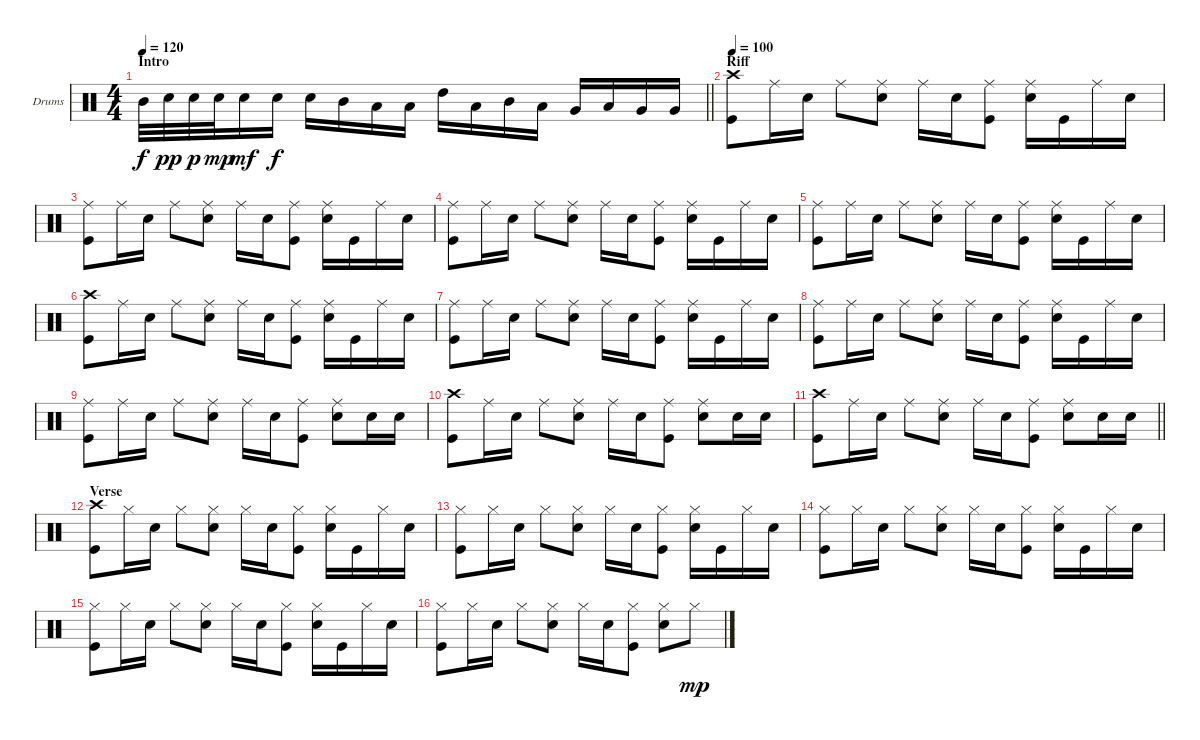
\bracketExtendMode groupsimilarinstruments
\firstSystemTrackNameOrientation horizontal
\otherSystemsTrackNameOrientation horizontal
\track ("Fabrizio" "Drums") {instrument percussion}
\staff {score}
\articulation defaults
\ts (4 4)
\beaming (8 2 2 2 2)
\section ("" "Intro")
\tempo 120
\clef neutral
\barLineRight lightlight
\ks c "Mid Tom (hit)".32{dy f} "Snare (hit) 2".32{dy pp} "Snare (hit) 2".32{dy p} "Snare (hit) 2".32{dy mp} "Snare (hit) 2".16{dy mf} "Snare (hit) 2".16{dy f} "Snare (hit) 2".16 "Mid Tom (hit)".16 "Low Tom (hit)".16 "Low Tom (hit)".16 "High Tom (hit)".16 "Low Tom (hit)".16 "Mid Tom (hit)".16 "Low Tom (hit)".16 "Very Low Tom (hit)".16 "Low Tom (hit)".16 "Very Low Tom (hit)".16 "Very Low Tom (hit)".16
|
\section ("" "Riff")
\tempo 100
("Crash high (hit)" "Kick (hit)").8 "Ride (middle)".16 "Snare (hit) 2".16 "Ride (middle)".8 ("Ride (middle)" "Snare (hit) 2").8 "Ride (middle)".16 "Snare (hit) 2".16 ("Ride (middle)" "Kick (hit)").8 ("Ride (middle)" "Snare (hit) 2").16 "Kick (hit)".16 "Ride (middle)".16 "Snare (hit) 2".16 |
("Ride (middle)" "Kick (hit)").8 "Ride (middle)".16 "Snare (hit) 2".16 "Ride (middle)".8 ("Ride (middle)" "Snare (hit) 2").8 "Ride (middle)".16 "Snare (hit) 2".16 ("Ride (middle)" "Kick (hit)").8 ("Ride (middle)" "Snare (hit) 2").16 "Kick (hit)".16 "Ride (middle)".16 "Snare (hit) 2".16 |
("Ride (middle)" "Kick (hit)").8 "Ride (middle)".16 "Snare (hit) 2".16 "Ride (middle)".8 ("Ride (middle)" "Snare (hit) 2").8 "Ride (middle)".16 "Snare (hit) 2".16 ("Ride (middle)" "Kick (hit)").8 ("Ride (middle)" "Snare (hit) 2").16 "Kick (hit)".16 "Ride (middle)".16 "Snare (hit) 2".16 |
("Ride (middle)" "Kick (hit)").8 "Ride (middle)".16 "Snare (hit) 2".16 "Ride (middle)".8 ("Ride (middle)" "Snare (hit) 2").8 "Ride (middle)".16 "Snare (hit) 2".16 ("Ride (middle)" "Kick (hit)").8 ("Ride (middle)" "Snare (hit) 2").16 "Kick (hit)".16 "Ride (middle)".16 "Snare (hit) 2".16 |
("Crash high (hit)" "Kick (hit)").8 "Ride (middle)".16 "Snare (hit) 2".16 "Ride (middle)".8 ("Ride (middle)" "Snare (hit) 2").8 "Ride (middle)".16 "Snare (hit) 2".16 ("Ride (middle)" "Kick (hit)").8 ("Ride (middle)" "Snare (hit) 2").16 "Kick (hit)".16 "Ride (middle)".16 "Snare (hit) 2".16 |
("Ride (middle)" "Kick (hit)").8 "Ride (middle)".16 "Snare (hit) 2".16 "Ride (middle)".8 ("Ride (middle)" "Snare (hit) 2").8 "Ride (middle)".16 "Snare (hit) 2".16 ("Ride (middle)" "Kick (hit)").8 ("Ride (middle)" "Snare (hit) 2").16 "Kick (hit)".16 "Ride (middle)".16 "Snare (hit) 2".16 |
("Ride (middle)" "Kick (hit)").8 "Ride (middle)".16 "Snare (hit) 2".16 "Ride (middle)".8 ("Ride (middle)" "Snare (hit) 2").8 "Ride (middle)".16 "Snare (hit) 2".16 ("Ride (middle)" "Kick (hit)").8 ("Ride (middle)" "Snare (hit) 2").16 "Kick (hit)".16 "Ride (middle)".16 "Snare (hit) 2".16 |
("Ride (middle)" "Kick (hit)").8 "Ride (middle)".16 "Snare (hit) 2".16 "Ride (middle)".8 ("Ride (middle)" "Snare (hit) 2").8 "Ride (middle)".16 "Snare (hit) 2".16 ("Ride (middle)" "Kick (hit)").8 ("Ride (middle)" "Snare (hit) 2").8 "Snare (hit) 2".16 "Snare (hit) 2".16 |
("Crash high (hit)" "Kick (hit)").8 "Ride (middle)".16 "Snare (hit) 2".16 "Ride (middle)".8 ("Ride (middle)" "Snare (hit) 2").8 "Ride (middle)".16 "Snare (hit) 2".16 ("Ride (middle)" "Kick (hit)").8 ("Ride (middle)" "Snare (hit) 2").8 "Snare (hit) 2".16 "Snare (hit) 2".16 |
\barLineRight lightlight
("Crash high (hit)" "Kick (hit)").8 "Ride (middle)".16 "Snare (hit) 2".16 "Ride (middle)".8 ("Ride (middle)" "Snare (hit) 2").8 "Ride (middle)".16 "Snare (hit) 2".16 ("Ride (middle)" "Kick (hit)").8 ("Ride (middle)" "Snare (hit) 2").8 "Snare (hit) 2".16 "Snare (hit) 2".16 |
\section ("" "Verse")
("Crash high (hit)" "Kick (hit)").8 "Hi-Hat (closed)".16 "Snare (hit) 2".16 "Hi-Hat (closed)".8 ("Hi-Hat (closed)" "Snare (hit) 2").8 "Hi-Hat (closed)".16 "Snare (hit) 2".16 ("Hi-Hat (closed)" "Kick (hit)").8 ("Hi-Hat (closed)" "Snare (hit) 2").16 "Kick (hit)".16 "Hi-Hat (closed)".16 "Snare (hit) 2".16 |
("Hi-Hat (closed)" "Kick (hit)").8 "Hi-Hat (closed)".16 "Snare (hit) 2".16 "Hi-Hat (closed)".8 ("Hi-Hat (closed)" "Snare (hit) 2").8 "Hi-Hat (closed)".16 "Snare (hit) 2".16 ("Hi-Hat (closed)" "Kick (hit)").8 ("Hi-Hat (closed)" "Snare (hit) 2").16 "Kick (hit)".16 "Hi-Hat (closed)".16 "Snare (hit) 2".16 |
("Hi-Hat (closed)" "Kick (hit)").8 "Hi-Hat (closed)".16 "Snare (hit) 2".16 "Hi-Hat (closed)".8 ("Hi-Hat (closed)" "Snare (hit) 2").8 "Hi-Hat (closed)".16 "Snare (hit) 2".16 ("Hi-Hat (closed)" "Kick (hit)").8 ("Hi-Hat (closed)" "Snare (hit) 2").16 "Kick (hit)".16 "Hi-Hat (closed)".16 "Snare (hit) 2".16 |
("Hi-Hat (closed)" "Kick (hit)").8 "Hi-Hat (closed)".16 "Snare (hit) 2".16 "Hi-Hat (closed)".8 ("Hi-Hat (closed)" "Snare (hit) 2").8 "Hi-Hat (closed)".16 "Snare (hit) 2".16 ("Hi-Hat (closed)" "Kick (hit)").8 ("Hi-Hat (closed)" "Snare (hit) 2").16 "Kick (hit)".16 "Hi-Hat (closed)".16 "Snare (hit) 2".16 |
("Hi-Hat (closed)" "Kick (hit)").8 "Hi-Hat (closed)".16 "Snare (hit) 2".16 "Hi-Hat (closed)".8 ("Hi-Hat (closed)" "Snare (hit) 2").8 "Hi-Hat (closed)".16 "Snare (hit) 2".16 ("Hi-Hat (closed)" "Kick (hit)").8 ("Hi-Hat (closed)" "Snare (hit) 2").8 "Hi-Hat (closed)".8{dy mp}
